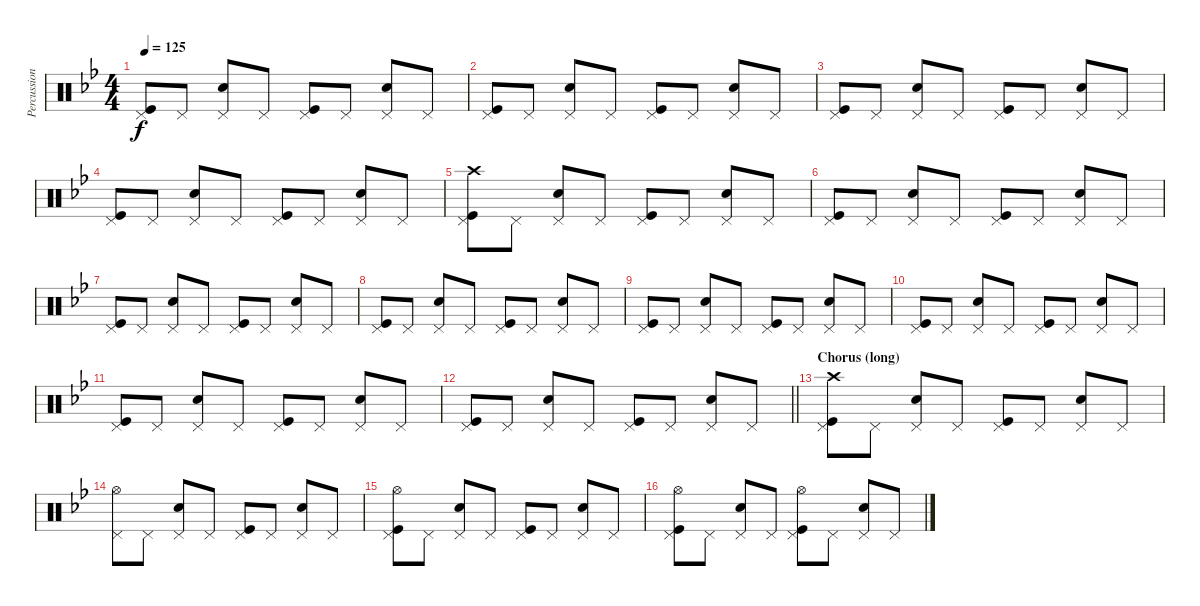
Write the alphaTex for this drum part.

\track ("Percussion" "Percussion") {instrument percussion}
\staff {score}
\articulation defaults
\ts (4 4)
\tempo 125
\clef neutral
\ks bb
("Kick (hit)" "Pedal Hi-Hat (hit)").8{dy f} "Pedal Hi-Hat (hit)".8 ("Snare (hit) 2" "Pedal Hi-Hat (hit)").8 "Pedal Hi-Hat (hit)".8 ("Kick (hit)" "Pedal Hi-Hat (hit)").8 "Pedal Hi-Hat (hit)".8 ("Snare (hit) 2" "Pedal Hi-Hat (hit)").8 "Pedal Hi-Hat (hit)".8 |
("Kick (hit)" "Pedal Hi-Hat (hit)").8 "Pedal Hi-Hat (hit)".8 ("Snare (hit) 2" "Pedal Hi-Hat (hit)").8 "Pedal Hi-Hat (hit)".8 ("Kick (hit)" "Pedal Hi-Hat (hit)").8 "Pedal Hi-Hat (hit)".8 ("Snare (hit) 2" "Pedal Hi-Hat (hit)").8 "Pedal Hi-Hat (hit)".8 |
("Kick (hit)" "Pedal Hi-Hat (hit)").8 "Pedal Hi-Hat (hit)".8 ("Snare (hit) 2" "Pedal Hi-Hat (hit)").8 "Pedal Hi-Hat (hit)".8 ("Kick (hit)" "Pedal Hi-Hat (hit)").8 "Pedal Hi-Hat (hit)".8 ("Snare (hit) 2" "Pedal Hi-Hat (hit)").8 "Pedal Hi-Hat (hit)".8 |
("Kick (hit)" "Pedal Hi-Hat (hit)").8 "Pedal Hi-Hat (hit)".8 ("Snare (hit) 2" "Pedal Hi-Hat (hit)").8 "Pedal Hi-Hat (hit)".8 ("Kick (hit)" "Pedal Hi-Hat (hit)").8 "Pedal Hi-Hat (hit)".8 ("Snare (hit) 2" "Pedal Hi-Hat (hit)").8 "Pedal Hi-Hat (hit)".8 |
("Crash high (hit)" "Kick (hit)" "Pedal Hi-Hat (hit)").8 "Pedal Hi-Hat (hit)".8 ("Snare (hit) 2" "Pedal Hi-Hat (hit)").8 "Pedal Hi-Hat (hit)".8 ("Kick (hit)" "Pedal Hi-Hat (hit)").8 "Pedal Hi-Hat (hit)".8 ("Snare (hit) 2" "Pedal Hi-Hat (hit)").8 "Pedal Hi-Hat (hit)".8 |
("Kick (hit)" "Pedal Hi-Hat (hit)").8 "Pedal Hi-Hat (hit)".8 ("Snare (hit) 2" "Pedal Hi-Hat (hit)").8 "Pedal Hi-Hat (hit)".8 ("Kick (hit)" "Pedal Hi-Hat (hit)").8 "Pedal Hi-Hat (hit)".8 ("Snare (hit) 2" "Pedal Hi-Hat (hit)").8 "Pedal Hi-Hat (hit)".8 |
("Kick (hit)" "Pedal Hi-Hat (hit)").8 "Pedal Hi-Hat (hit)".8 ("Snare (hit) 2" "Pedal Hi-Hat (hit)").8 "Pedal Hi-Hat (hit)".8 ("Kick (hit)" "Pedal Hi-Hat (hit)").8 "Pedal Hi-Hat (hit)".8 ("Snare (hit) 2" "Pedal Hi-Hat (hit)").8 "Pedal Hi-Hat (hit)".8 |
("Kick (hit)" "Pedal Hi-Hat (hit)").8 "Pedal Hi-Hat (hit)".8 ("Snare (hit) 2" "Pedal Hi-Hat (hit)").8 "Pedal Hi-Hat (hit)".8 ("Kick (hit)" "Pedal Hi-Hat (hit)").8 "Pedal Hi-Hat (hit)".8 ("Snare (hit) 2" "Pedal Hi-Hat (hit)").8 "Pedal Hi-Hat (hit)".8 |
("Kick (hit)" "Pedal Hi-Hat (hit)").8 "Pedal Hi-Hat (hit)".8 ("Snare (hit) 2" "Pedal Hi-Hat (hit)").8 "Pedal Hi-Hat (hit)".8 ("Kick (hit)" "Pedal Hi-Hat (hit)").8 "Pedal Hi-Hat (hit)".8 ("Snare (hit) 2" "Pedal Hi-Hat (hit)").8 "Pedal Hi-Hat (hit)".8 |
("Kick (hit)" "Pedal Hi-Hat (hit)").8 "Pedal Hi-Hat (hit)".8 ("Snare (hit) 2" "Pedal Hi-Hat (hit)").8 "Pedal Hi-Hat (hit)".8 ("Kick (hit)" "Pedal Hi-Hat (hit)").8 "Pedal Hi-Hat (hit)".8 ("Snare (hit) 2" "Pedal Hi-Hat (hit)").8 "Pedal Hi-Hat (hit)".8 |
("Kick (hit)" "Pedal Hi-Hat (hit)").8 "Pedal Hi-Hat (hit)".8 ("Snare (hit) 2" "Pedal Hi-Hat (hit)").8 "Pedal Hi-Hat (hit)".8 ("Kick (hit)" "Pedal Hi-Hat (hit)").8 "Pedal Hi-Hat (hit)".8 ("Snare (hit) 2" "Pedal Hi-Hat (hit)").8 "Pedal Hi-Hat (hit)".8 |
\barLineRight lightlight
("Kick (hit)" "Pedal Hi-Hat (hit)").8 "Pedal Hi-Hat (hit)".8 ("Snare (hit) 2" "Pedal Hi-Hat (hit)").8 "Pedal Hi-Hat (hit)".8 ("Kick (hit)" "Pedal Hi-Hat (hit)").8 "Pedal Hi-Hat (hit)".8 ("Snare (hit) 2" "Pedal Hi-Hat (hit)").8 "Pedal Hi-Hat (hit)".8 |
\section ("" "Chorus (long)")
("Crash high (hit)" "Kick (hit)" "Pedal Hi-Hat (hit)").8 "Pedal Hi-Hat (hit)".8 ("Snare (hit) 2" "Pedal Hi-Hat (hit)").8 "Pedal Hi-Hat (hit)".8 ("Kick (hit)" "Pedal Hi-Hat (hit)").8 "Pedal Hi-Hat (hit)".8 ("Snare (hit) 2" "Pedal Hi-Hat (hit)").8 "Pedal Hi-Hat (hit)".8 |
("Hi-Hat (open)" "Pedal Hi-Hat (hit)").8 "Pedal Hi-Hat (hit)".8 ("Snare (hit) 2" "Pedal Hi-Hat (hit)").8 "Pedal Hi-Hat (hit)".8 ("Kick (hit)" "Pedal Hi-Hat (hit)").8 "Pedal Hi-Hat (hit)".8 ("Snare (hit) 2" "Pedal Hi-Hat (hit)").8 "Pedal Hi-Hat (hit)".8 |
("Hi-Hat (open)" "Kick (hit)" "Pedal Hi-Hat (hit)").8 "Pedal Hi-Hat (hit)".8 ("Snare (hit) 2" "Pedal Hi-Hat (hit)").8 "Pedal Hi-Hat (hit)".8 ("Kick (hit)" "Pedal Hi-Hat (hit)").8 "Pedal Hi-Hat (hit)".8 ("Snare (hit) 2" "Pedal Hi-Hat (hit)").8 "Pedal Hi-Hat (hit)".8 |
("Hi-Hat (open)" "Kick (hit)" "Pedal Hi-Hat (hit)").8 "Pedal Hi-Hat (hit)".8 ("Snare (hit) 2" "Pedal Hi-Hat (hit)").8 "Pedal Hi-Hat (hit)".8 ("Hi-Hat (open)" "Kick (hit)" "Pedal Hi-Hat (hit)").8 "Pedal Hi-Hat (hit)".8 ("Snare (hit) 2" "Pedal Hi-Hat (hit)").8 "Pedal Hi-Hat (hit)".8
